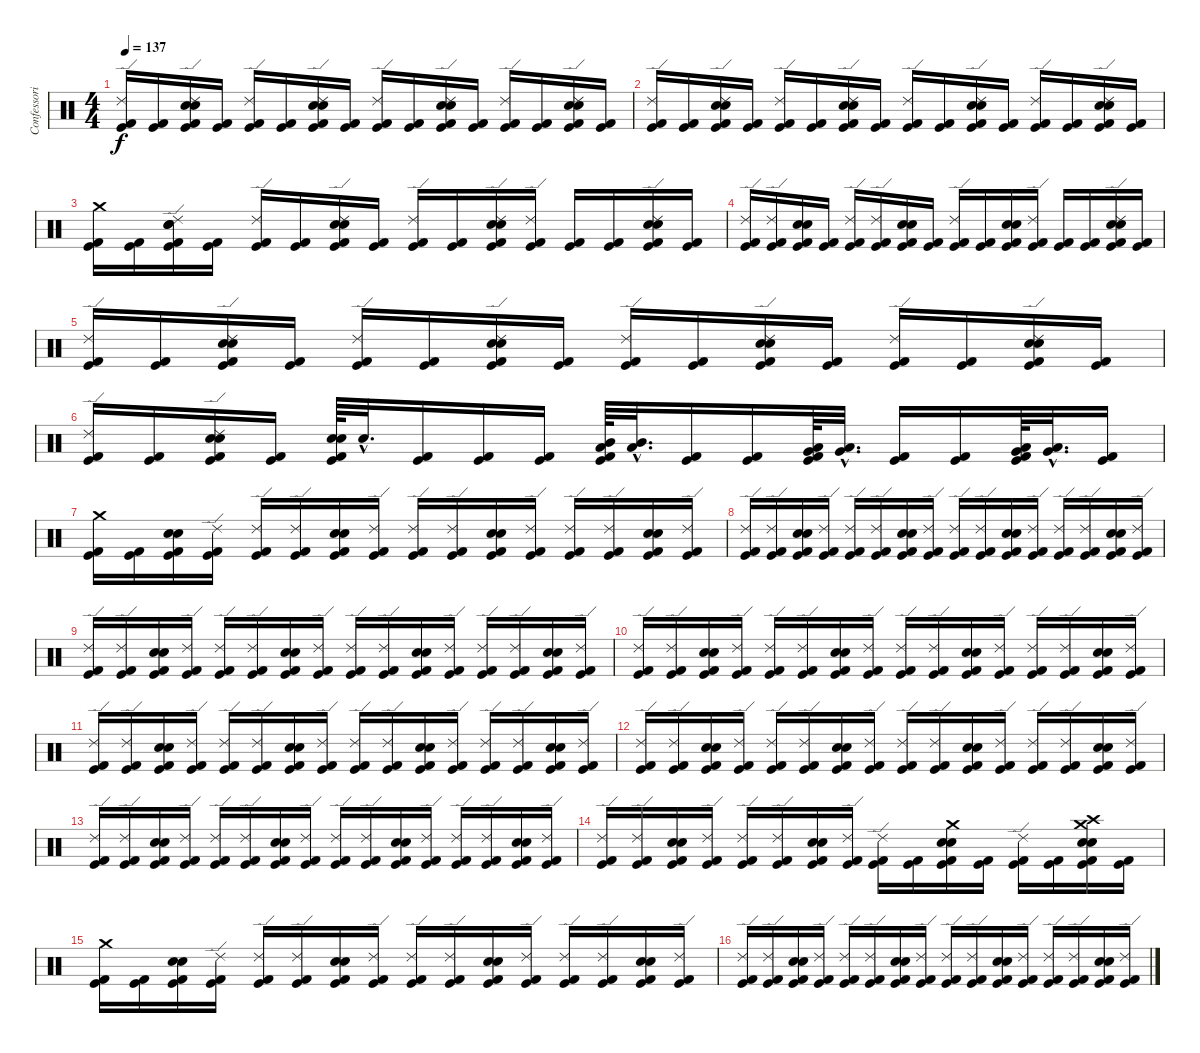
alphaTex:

\track ("Confessori" "Confessori") {instrument percussion}
\staff {score}
\articulation defaults
\ts (4 4)
\tempo 137
\clef neutral
\ks c
("Ride (edge) 2" "Kick (hit) 2" "Kick (hit)").16{dy f} ("Kick (hit) 2" "Kick (hit)").16 ("Electric Snare (hit)" "Snare (hit) 2" "Ride (edge) 2" "Kick (hit) 2" "Kick (hit)").16 ("Kick (hit) 2" "Kick (hit)").16 ("Ride (edge) 2" "Kick (hit) 2" "Kick (hit)").16 ("Kick (hit) 2" "Kick (hit)").16 ("Electric Snare (hit)" "Snare (hit) 2" "Ride (edge) 2" "Kick (hit) 2" "Kick (hit)").16 ("Kick (hit) 2" "Kick (hit)").16 ("Ride (edge) 2" "Kick (hit) 2" "Kick (hit)").16 ("Kick (hit) 2" "Kick (hit)").16 ("Electric Snare (hit)" "Snare (hit) 2" "Ride (edge) 2" "Kick (hit) 2" "Kick (hit)").16 ("Kick (hit) 2" "Kick (hit)").16 ("Ride (edge) 2" "Kick (hit) 2" "Kick (hit)").16 ("Kick (hit) 2" "Kick (hit)").16 ("Electric Snare (hit)" "Snare (hit) 2" "Ride (edge) 2" "Kick (hit) 2" "Kick (hit)").16 ("Kick (hit) 2" "Kick (hit)").16 |
("Ride (edge) 2" "Kick (hit) 2" "Kick (hit)").16 ("Kick (hit) 2" "Kick (hit)").16 ("Electric Snare (hit)" "Snare (hit) 2" "Ride (edge) 2" "Kick (hit) 2" "Kick (hit)").16 ("Kick (hit) 2" "Kick (hit)").16 ("Ride (edge) 2" "Kick (hit) 2" "Kick (hit)").16 ("Kick (hit) 2" "Kick (hit)").16 ("Electric Snare (hit)" "Snare (hit) 2" "Ride (edge) 2" "Kick (hit) 2" "Kick (hit)").16 ("Kick (hit) 2" "Kick (hit)").16 ("Ride (edge) 2" "Kick (hit) 2" "Kick (hit)").16 ("Kick (hit) 2" "Kick (hit)").16 ("Electric Snare (hit)" "Snare (hit) 2" "Ride (edge) 2" "Kick (hit) 2" "Kick (hit)").16 ("Kick (hit) 2" "Kick (hit)").16 ("Ride (edge) 2" "Kick (hit) 2" "Kick (hit)").16 ("Kick (hit) 2" "Kick (hit)").16 ("Electric Snare (hit)" "Snare (hit) 2" "Ride (edge) 2" "Kick (hit) 2" "Kick (hit)").16 ("Kick (hit) 2" "Kick (hit)").16 |
("Crash medium (hit)" "Kick (hit) 2" "Kick (hit)").16 ("Kick (hit) 2" "Kick (hit)").16 ("Electric Snare (hit)" "Snare (hit) 2" "Ride (edge) 2" "Kick (hit) 2" "Kick (hit)").16 ("Kick (hit) 2" "Kick (hit)").16 ("Ride (edge) 2" "Kick (hit) 2" "Kick (hit)").16 ("Kick (hit) 2" "Kick (hit)").16 ("Electric Snare (hit)" "Snare (hit) 2" "Ride (edge) 2" "Kick (hit) 2" "Kick (hit)").16 ("Kick (hit) 2" "Kick (hit)").16 ("Ride (edge) 2" "Kick (hit) 2" "Kick (hit)").16 ("Kick (hit) 2" "Kick (hit)").16 ("Electric Snare (hit)" "Snare (hit) 2" "Ride (edge) 2" "Kick (hit) 2" "Kick (hit)").16 ("Ride (edge) 2" "Kick (hit) 2" "Kick (hit)").16 ("Kick (hit) 2" "Kick (hit)").16 ("Kick (hit) 2" "Kick (hit)").16 ("Electric Snare (hit)" "Snare (hit) 2" "Ride (edge) 2" "Kick (hit) 2" "Kick (hit)").16 ("Kick (hit) 2" "Kick (hit)").16 |
("Ride (edge) 2" "Kick (hit) 2" "Kick (hit)").16 ("Ride (edge) 2" "Kick (hit) 2" "Kick (hit)").16 ("Electric Snare (hit)" "Snare (hit) 2" "Kick (hit) 2" "Kick (hit)").16 ("Kick (hit) 2" "Kick (hit)").16 ("Ride (edge) 2" "Kick (hit) 2" "Kick (hit)").16 ("Ride (edge) 2" "Kick (hit) 2" "Kick (hit)").16 ("Electric Snare (hit)" "Snare (hit) 2" "Kick (hit) 2" "Kick (hit)").16 ("Kick (hit) 2" "Kick (hit)").16 ("Ride (edge) 2" "Kick (hit) 2" "Kick (hit)").16 ("Kick (hit) 2" "Kick (hit)").16 ("Electric Snare (hit)" "Snare (hit) 2" "Kick (hit) 2" "Kick (hit)").16 ("Ride (edge) 2" "Kick (hit) 2" "Kick (hit)").16 ("Kick (hit) 2" "Kick (hit)").16 ("Kick (hit) 2" "Kick (hit)").16 ("Electric Snare (hit)" "Snare (hit) 2" "Ride (edge) 2" "Kick (hit) 2" "Kick (hit)").16 ("Kick (hit) 2" "Kick (hit)").16 |
("Ride (edge) 2" "Kick (hit) 2" "Kick (hit)").16 ("Kick (hit) 2" "Kick (hit)").16 ("Electric Snare (hit)" "Snare (hit) 2" "Ride (edge) 2" "Kick (hit) 2" "Kick (hit)").16 ("Kick (hit) 2" "Kick (hit)").16 ("Ride (edge) 2" "Kick (hit) 2" "Kick (hit)").16 ("Kick (hit) 2" "Kick (hit)").16 ("Electric Snare (hit)" "Snare (hit) 2" "Ride (edge) 2" "Kick (hit) 2" "Kick (hit)").16 ("Kick (hit) 2" "Kick (hit)").16 ("Ride (edge) 2" "Kick (hit) 2" "Kick (hit)").16 ("Kick (hit) 2" "Kick (hit)").16 ("Electric Snare (hit)" "Snare (hit) 2" "Ride (edge) 2" "Kick (hit) 2" "Kick (hit)").16 ("Kick (hit) 2" "Kick (hit)").16 ("Ride (edge) 2" "Kick (hit) 2" "Kick (hit)").16 ("Kick (hit) 2" "Kick (hit)").16 ("Electric Snare (hit)" "Snare (hit) 2" "Ride (edge) 2" "Kick (hit) 2" "Kick (hit)").16 ("Kick (hit) 2" "Kick (hit)").16 |
("Ride (edge) 2" "Kick (hit) 2" "Kick (hit)").16 ("Kick (hit) 2" "Kick (hit)").16 ("Electric Snare (hit)" "Snare (hit) 2" "Ride (edge) 2" "Kick (hit) 2" "Kick (hit)").16 ("Kick (hit) 2" "Kick (hit)").16 ("Electric Snare (hit)" "Snare (hit) 2" "Kick (hit) 2" "Kick (hit)").64 "Electric Snare (hit)"{hac}.32{d} ("Kick (hit) 2" "Kick (hit)").16 ("Kick (hit) 2" "Kick (hit)").16 ("Kick (hit) 2" "Kick (hit)").16 ("Low Tom (hit)" "Mid Tom (hit)" "Kick (hit) 2" "Kick (hit)").64 ("Mid Tom (hit)"{hac} "Low Tom (hit)"{hac}).32{d} ("Kick (hit) 2" "Kick (hit)").16 ("Kick (hit) 2" "Kick (hit)").16 ("Very Low Tom (hit)" "Low Tom (hit)" "Kick (hit) 2" "Kick (hit)").64 ("Low Tom (hit)"{hac} "Very Low Tom (hit)"{hac}).32{d} ("Kick (hit) 2" "Kick (hit)").16 ("Kick (hit) 2" "Kick (hit)").16 ("Low Floor Tom (hit)" "Very Low Tom (hit)" "Kick (hit) 2" "Kick (hit)").64 ("Very Low Tom (hit)"{hac} "Low Floor Tom (hit)"{hac}).32{d} ("Kick (hit) 2" "Kick (hit)").16 |
("Crash medium (hit)" "Kick (hit) 2" "Kick (hit)").16 ("Kick (hit) 2" "Kick (hit)").16 ("Electric Snare (hit)" "Snare (hit) 2" "Kick (hit) 2" "Kick (hit)").16 ("Ride (edge) 2" "Kick (hit) 2" "Kick (hit)").16 ("Ride (edge) 2" "Kick (hit) 2" "Kick (hit)").16 ("Ride (edge) 2" "Kick (hit) 2" "Kick (hit)").16 ("Snare (hit) 2" "Electric Snare (hit)" "Kick (hit) 2" "Kick (hit)").16 ("Ride (edge) 2" "Kick (hit) 2" "Kick (hit)").16 ("Ride (edge) 2" "Kick (hit) 2" "Kick (hit)").16 ("Ride (edge) 2" "Kick (hit) 2" "Kick (hit)").16 ("Electric Snare (hit)" "Snare (hit) 2" "Kick (hit) 2" "Kick (hit)").16 ("Ride (edge) 2" "Kick (hit) 2" "Kick (hit)").16 ("Ride (edge) 2" "Kick (hit) 2" "Kick (hit)").16 ("Ride (edge) 2" "Kick (hit) 2" "Kick (hit)").16 ("Electric Snare (hit)" "Snare (hit) 2" "Kick (hit) 2" "Kick (hit)").16 ("Ride (edge) 2" "Kick (hit) 2" "Kick (hit)").16 |
("Ride (edge) 2" "Kick (hit) 2" "Kick (hit)").16 ("Ride (edge) 2" "Kick (hit) 2" "Kick (hit)").16 ("Electric Snare (hit)" "Snare (hit) 2" "Kick (hit) 2" "Kick (hit)").16 ("Ride (edge) 2" "Kick (hit) 2" "Kick (hit)").16 ("Ride (edge) 2" "Kick (hit) 2" "Kick (hit)").16 ("Ride (edge) 2" "Kick (hit) 2" "Kick (hit)").16 ("Electric Snare (hit)" "Snare (hit) 2" "Kick (hit) 2" "Kick (hit)").16 ("Ride (edge) 2" "Kick (hit) 2" "Kick (hit)").16 ("Ride (edge) 2" "Kick (hit) 2" "Kick (hit)").16 ("Ride (edge) 2" "Kick (hit) 2" "Kick (hit)").16 ("Electric Snare (hit)" "Snare (hit) 2" "Kick (hit) 2" "Kick (hit)").16 ("Ride (edge) 2" "Kick (hit) 2" "Kick (hit)").16 ("Ride (edge) 2" "Kick (hit) 2" "Kick (hit)").16 ("Ride (edge) 2" "Kick (hit) 2" "Kick (hit)").16 ("Electric Snare (hit)" "Snare (hit) 2" "Kick (hit) 2" "Kick (hit)").16 ("Ride (edge) 2" "Kick (hit) 2" "Kick (hit)").16 |
("Ride (edge) 2" "Kick (hit) 2" "Kick (hit)").16 ("Ride (edge) 2" "Kick (hit) 2" "Kick (hit)").16 ("Electric Snare (hit)" "Snare (hit) 2" "Kick (hit) 2" "Kick (hit)").16 ("Ride (edge) 2" "Kick (hit) 2" "Kick (hit)").16 ("Ride (edge) 2" "Kick (hit) 2" "Kick (hit)").16 ("Ride (edge) 2" "Kick (hit) 2" "Kick (hit)").16 ("Electric Snare (hit)" "Snare (hit) 2" "Kick (hit) 2" "Kick (hit)").16 ("Ride (edge) 2" "Kick (hit) 2" "Kick (hit)").16 ("Ride (edge) 2" "Kick (hit) 2" "Kick (hit)").16 ("Ride (edge) 2" "Kick (hit) 2" "Kick (hit)").16 ("Electric Snare (hit)" "Snare (hit) 2" "Kick (hit) 2" "Kick (hit)").16 ("Ride (edge) 2" "Kick (hit) 2" "Kick (hit)").16 ("Ride (edge) 2" "Kick (hit) 2" "Kick (hit)").16 ("Ride (edge) 2" "Kick (hit) 2" "Kick (hit)").16 ("Electric Snare (hit)" "Snare (hit) 2" "Kick (hit) 2" "Kick (hit)").16 ("Ride (edge) 2" "Kick (hit) 2" "Kick (hit)").16 |
("Ride (edge) 2" "Kick (hit) 2" "Kick (hit)").16 ("Ride (edge) 2" "Kick (hit) 2" "Kick (hit)").16 ("Electric Snare (hit)" "Snare (hit) 2" "Kick (hit) 2" "Kick (hit)").16 ("Ride (edge) 2" "Kick (hit) 2" "Kick (hit)").16 ("Ride (edge) 2" "Kick (hit) 2" "Kick (hit)").16 ("Ride (edge) 2" "Kick (hit) 2" "Kick (hit)").16 ("Electric Snare (hit)" "Snare (hit) 2" "Kick (hit) 2" "Kick (hit)").16 ("Ride (edge) 2" "Kick (hit) 2" "Kick (hit)").16 ("Ride (edge) 2" "Kick (hit) 2" "Kick (hit)").16 ("Ride (edge) 2" "Kick (hit) 2" "Kick (hit)").16 ("Electric Snare (hit)" "Snare (hit) 2" "Kick (hit) 2" "Kick (hit)").16 ("Ride (edge) 2" "Kick (hit) 2" "Kick (hit)").16 ("Ride (edge) 2" "Kick (hit) 2" "Kick (hit)").16 ("Ride (edge) 2" "Kick (hit) 2" "Kick (hit)").16 ("Electric Snare (hit)" "Snare (hit) 2" "Kick (hit) 2" "Kick (hit)").16 ("Ride (edge) 2" "Kick (hit) 2" "Kick (hit)").16 |
("Ride (edge) 2" "Kick (hit) 2" "Kick (hit)").16 ("Ride (edge) 2" "Kick (hit) 2" "Kick (hit)").16 ("Electric Snare (hit)" "Snare (hit) 2" "Kick (hit) 2" "Kick (hit)").16 ("Ride (edge) 2" "Kick (hit) 2" "Kick (hit)").16 ("Ride (edge) 2" "Kick (hit) 2" "Kick (hit)").16 ("Ride (edge) 2" "Kick (hit) 2" "Kick (hit)").16 ("Electric Snare (hit)" "Snare (hit) 2" "Kick (hit) 2" "Kick (hit)").16 ("Ride (edge) 2" "Kick (hit) 2" "Kick (hit)").16 ("Ride (edge) 2" "Kick (hit) 2" "Kick (hit)").16 ("Ride (edge) 2" "Kick (hit) 2" "Kick (hit)").16 ("Electric Snare (hit)" "Snare (hit) 2" "Kick (hit) 2" "Kick (hit)").16 ("Ride (edge) 2" "Kick (hit) 2" "Kick (hit)").16 ("Ride (edge) 2" "Kick (hit) 2" "Kick (hit)").16 ("Ride (edge) 2" "Kick (hit) 2" "Kick (hit)").16 ("Electric Snare (hit)" "Snare (hit) 2" "Kick (hit) 2" "Kick (hit)").16 ("Ride (edge) 2" "Kick (hit) 2" "Kick (hit)").16 |
("Ride (edge) 2" "Kick (hit) 2" "Kick (hit)").16 ("Ride (edge) 2" "Kick (hit) 2" "Kick (hit)").16 ("Electric Snare (hit)" "Snare (hit) 2" "Kick (hit) 2" "Kick (hit)").16 ("Ride (edge) 2" "Kick (hit) 2" "Kick (hit)").16 ("Ride (edge) 2" "Kick (hit) 2" "Kick (hit)").16 ("Ride (edge) 2" "Kick (hit) 2" "Kick (hit)").16 ("Electric Snare (hit)" "Snare (hit) 2" "Kick (hit) 2" "Kick (hit)").16 ("Ride (edge) 2" "Kick (hit) 2" "Kick (hit)").16 ("Ride (edge) 2" "Kick (hit) 2" "Kick (hit)").16 ("Ride (edge) 2" "Kick (hit) 2" "Kick (hit)").16 ("Electric Snare (hit)" "Snare (hit) 2" "Kick (hit) 2" "Kick (hit)").16 ("Ride (edge) 2" "Kick (hit) 2" "Kick (hit)").16 ("Ride (edge) 2" "Kick (hit) 2" "Kick (hit)").16 ("Ride (edge) 2" "Kick (hit) 2" "Kick (hit)").16 ("Electric Snare (hit)" "Snare (hit) 2" "Kick (hit) 2" "Kick (hit)").16 ("Ride (edge) 2" "Kick (hit) 2" "Kick (hit)").16 |
("Ride (edge) 2" "Kick (hit) 2" "Kick (hit)").16 ("Ride (edge) 2" "Kick (hit) 2" "Kick (hit)").16 ("Electric Snare (hit)" "Snare (hit) 2" "Kick (hit) 2" "Kick (hit)").16 ("Ride (edge) 2" "Kick (hit) 2" "Kick (hit)").16 ("Ride (edge) 2" "Kick (hit) 2" "Kick (hit)").16 ("Ride (edge) 2" "Kick (hit) 2" "Kick (hit)").16 ("Electric Snare (hit)" "Snare (hit) 2" "Kick (hit) 2" "Kick (hit)").16 ("Ride (edge) 2" "Kick (hit) 2" "Kick (hit)").16 ("Ride (edge) 2" "Kick (hit) 2" "Kick (hit)").16 ("Ride (edge) 2" "Kick (hit) 2" "Kick (hit)").16 ("Electric Snare (hit)" "Snare (hit) 2" "Kick (hit) 2" "Kick (hit)").16 ("Ride (edge) 2" "Kick (hit) 2" "Kick (hit)").16 ("Ride (edge) 2" "Kick (hit) 2" "Kick (hit)").16 ("Ride (edge) 2" "Kick (hit) 2" "Kick (hit)").16 ("Electric Snare (hit)" "Snare (hit) 2" "Kick (hit) 2" "Kick (hit)").16 ("Ride (edge) 2" "Kick (hit) 2" "Kick (hit)").16 |
("Ride (edge) 2" "Kick (hit) 2" "Kick (hit)").16 ("Ride (edge) 2" "Kick (hit) 2" "Kick (hit)").16 ("Electric Snare (hit)" "Snare (hit) 2" "Kick (hit) 2" "Kick (hit)").16 ("Ride (edge) 2" "Kick (hit) 2" "Kick (hit)").16 ("Ride (edge) 2" "Kick (hit) 2" "Kick (hit)").16 ("Ride (edge) 2" "Kick (hit) 2" "Kick (hit)").16 ("Electric Snare (hit)" "Snare (hit) 2" "Kick (hit) 2" "Kick (hit)").16 ("Ride (edge) 2" "Kick (hit) 2" "Kick (hit)").16 ("Ride (edge) 2" "Kick (hit) 2" "Kick (hit)").16 ("Kick (hit) 2" "Kick (hit)").16 ("Crash medium (hit)" "Electric Snare (hit)" "Snare (hit) 2" "Kick (hit) 2" "Kick (hit)").16 ("Kick (hit) 2" "Kick (hit)").16 ("Ride (edge) 2" "Kick (hit) 2" "Kick (hit)").16 ("Kick (hit) 2" "Kick (hit)").16 ("Crash medium (hit)" "Crash high (hit)" "Electric Snare (hit)" "Snare (hit) 2" "Kick (hit) 2" "Kick (hit)").16 ("Kick (hit) 2" "Kick (hit)").16 |
("Crash medium (hit)" "Kick (hit) 2" "Kick (hit)").16 ("Kick (hit) 2" "Kick (hit)").16 ("Electric Snare (hit)" "Snare (hit) 2" "Kick (hit) 2" "Kick (hit)").16 ("Ride (edge) 2" "Kick (hit) 2" "Kick (hit)").16 ("Ride (edge) 2" "Kick (hit) 2" "Kick (hit)").16 ("Ride (edge) 2" "Kick (hit) 2" "Kick (hit)").16 ("Electric Snare (hit)" "Snare (hit) 2" "Kick (hit) 2" "Kick (hit)").16 ("Ride (edge) 2" "Kick (hit) 2" "Kick (hit)").16 ("Ride (edge) 2" "Kick (hit) 2" "Kick (hit)").16 ("Ride (edge) 2" "Kick (hit) 2" "Kick (hit)").16 ("Electric Snare (hit)" "Snare (hit) 2" "Kick (hit) 2" "Kick (hit)").16 ("Ride (edge) 2" "Kick (hit) 2" "Kick (hit)").16 ("Ride (edge) 2" "Kick (hit) 2" "Kick (hit)").16 ("Ride (edge) 2" "Kick (hit) 2" "Kick (hit)").16 ("Electric Snare (hit)" "Snare (hit) 2" "Kick (hit) 2" "Kick (hit)").16 ("Ride (edge) 2" "Kick (hit) 2" "Kick (hit)").16 |
("Ride (edge) 2" "Kick (hit) 2" "Kick (hit)").16 ("Ride (edge) 2" "Kick (hit) 2" "Kick (hit)").16 ("Electric Snare (hit)" "Snare (hit) 2" "Kick (hit) 2" "Kick (hit)").16 ("Ride (edge) 2" "Kick (hit) 2" "Kick (hit)").16 ("Ride (edge) 2" "Kick (hit) 2" "Kick (hit)").16 ("Ride (edge) 2" "Kick (hit) 2" "Kick (hit)").16 ("Electric Snare (hit)" "Snare (hit) 2" "Kick (hit) 2" "Kick (hit)").16 ("Ride (edge) 2" "Kick (hit) 2" "Kick (hit)").16 ("Ride (edge) 2" "Kick (hit) 2" "Kick (hit)").16 ("Ride (edge) 2" "Kick (hit) 2" "Kick (hit)").16 ("Electric Snare (hit)" "Snare (hit) 2" "Kick (hit) 2" "Kick (hit)").16 ("Ride (edge) 2" "Kick (hit) 2" "Kick (hit)").16 ("Ride (edge) 2" "Kick (hit) 2" "Kick (hit)").16 ("Ride (edge) 2" "Kick (hit) 2" "Kick (hit)").16 ("Electric Snare (hit)" "Snare (hit) 2" "Kick (hit) 2" "Kick (hit)").16 ("Ride (edge) 2" "Kick (hit) 2" "Kick (hit)").16
